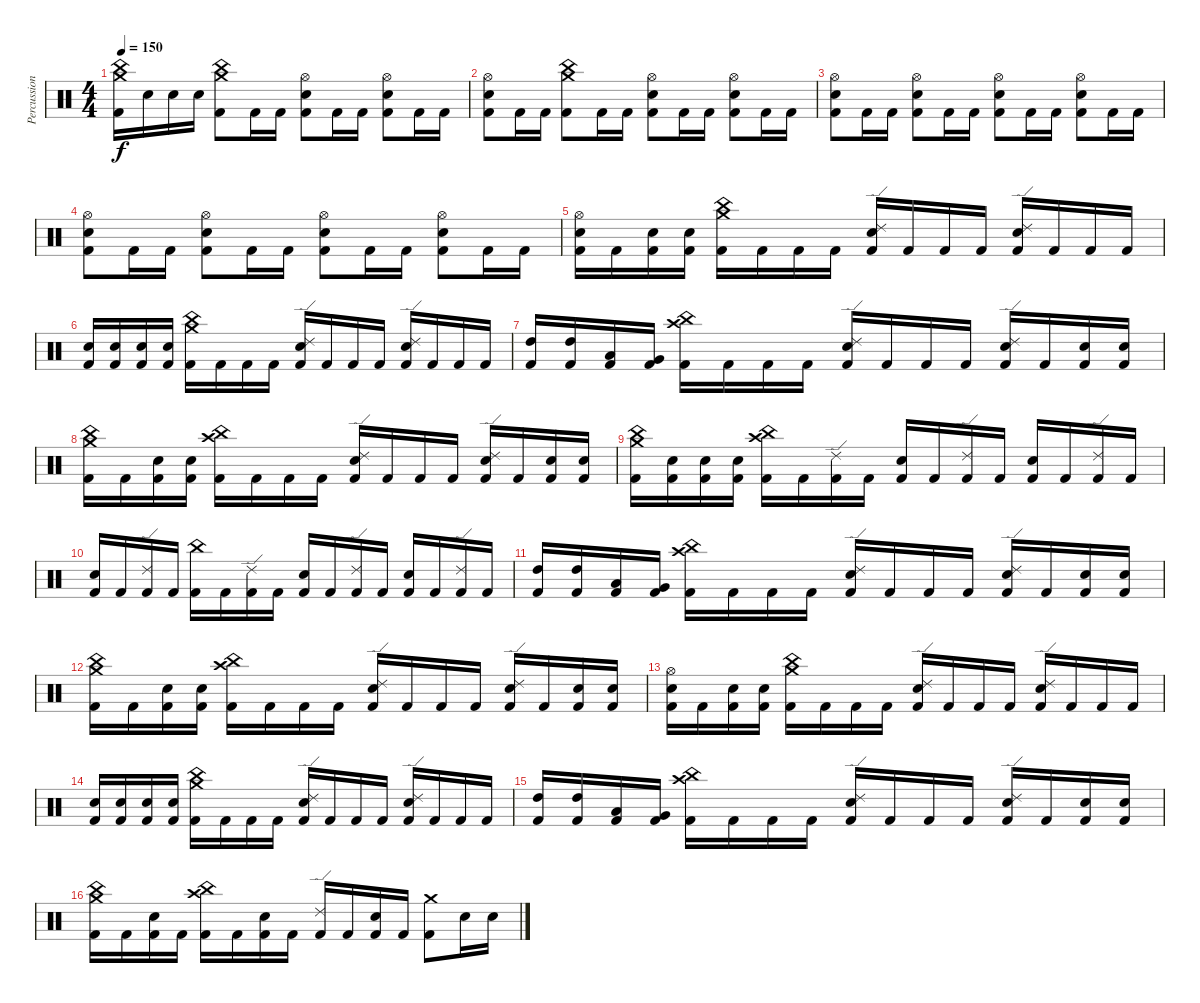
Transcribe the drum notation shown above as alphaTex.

\track ("Percussion" "Percussion") {instrument percussion}
\staff {score}
\articulation defaults
\ts (4 4)
\tempo 150
\clef neutral
\ks c
("China (hit)" "Crash medium (hit)" "Kick (hit) 2").16{dy f} "Electric Snare (hit)".16 "Electric Snare (hit)".16 "Electric Snare (hit)".16 ("China (hit)" "Crash medium (hit)" "Kick (hit) 2").8 "Kick (hit) 2".16 "Kick (hit) 2".16 ("Hi-Hat (open)" "Electric Snare (hit)" "Kick (hit) 2").8 "Kick (hit) 2".16 "Kick (hit) 2".16 ("Hi-Hat (open)" "Electric Snare (hit)" "Kick (hit) 2").8 "Kick (hit) 2".16 "Kick (hit) 2".16 |
("Hi-Hat (open)" "Electric Snare (hit)" "Kick (hit) 2").8 "Kick (hit) 2".16 "Kick (hit) 2".16 ("China (hit)" "Crash medium (hit)" "Kick (hit) 2").8 "Kick (hit) 2".16 "Kick (hit) 2".16 ("Hi-Hat (open)" "Electric Snare (hit)" "Kick (hit) 2").8 "Kick (hit) 2".16 "Kick (hit) 2".16 ("Hi-Hat (open)" "Electric Snare (hit)" "Kick (hit) 2").8 "Kick (hit) 2".16 "Kick (hit) 2".16 |
("Hi-Hat (open)" "Electric Snare (hit)" "Kick (hit) 2").8 "Kick (hit) 2".16 "Kick (hit) 2".16 ("Hi-Hat (open)" "Electric Snare (hit)" "Kick (hit) 2").8 "Kick (hit) 2".16 "Kick (hit) 2".16 ("Hi-Hat (open)" "Electric Snare (hit)" "Kick (hit) 2").8 "Kick (hit) 2".16 "Kick (hit) 2".16 ("Hi-Hat (open)" "Electric Snare (hit)" "Kick (hit) 2").8 "Kick (hit) 2".16 "Kick (hit) 2".16 |
("Hi-Hat (open)" "Electric Snare (hit)" "Kick (hit) 2").8 "Kick (hit) 2".16 "Kick (hit) 2".16 ("Hi-Hat (open)" "Electric Snare (hit)" "Kick (hit) 2").8 "Kick (hit) 2".16 "Kick (hit) 2".16 ("Hi-Hat (open)" "Electric Snare (hit)" "Kick (hit) 2").8 "Kick (hit) 2".16 "Kick (hit) 2".16 ("Hi-Hat (open)" "Electric Snare (hit)" "Kick (hit) 2").8 "Kick (hit) 2".16 "Kick (hit) 2".16 |
("Hi-Hat (open)" "Electric Snare (hit)" "Kick (hit) 2").16 "Kick (hit) 2".16 ("Electric Snare (hit)" "Kick (hit) 2").16 ("Electric Snare (hit)" "Kick (hit) 2").16 ("China (hit)" "Crash medium (hit)" "Kick (hit) 2").16 "Kick (hit) 2".16 "Kick (hit) 2".16 "Kick (hit) 2".16 ("Ride (edge) 2" "Electric Snare (hit)" "Kick (hit) 2").16 "Kick (hit) 2".16 "Kick (hit) 2".16 "Kick (hit) 2".16 ("Ride (edge) 2" "Electric Snare (hit)" "Kick (hit) 2").16 "Kick (hit) 2".16 "Kick (hit) 2".16 "Kick (hit) 2".16 |
("Electric Snare (hit)" "Kick (hit) 2").16 ("Electric Snare (hit)" "Kick (hit) 2").16 ("Electric Snare (hit)" "Kick (hit) 2").16 ("Electric Snare (hit)" "Kick (hit) 2").16 ("China (hit)" "Crash medium (hit)" "Kick (hit) 2").16 "Kick (hit) 2".16 "Kick (hit) 2".16 "Kick (hit) 2".16 ("Ride (edge) 2" "Electric Snare (hit)" "Kick (hit) 2").16 "Kick (hit) 2".16 "Kick (hit) 2".16 "Kick (hit) 2".16 ("Ride (edge) 2" "Electric Snare (hit)" "Kick (hit) 2").16 "Kick (hit) 2".16 "Kick (hit) 2".16 "Kick (hit) 2".16 |
("High Tom (hit)" "Kick (hit) 2").16 ("High Tom (hit)" "Kick (hit) 2").16 ("Low Tom (hit)" "Kick (hit) 2").16 ("Very Low Tom (hit)" "Kick (hit) 2").16 ("China (hit)" "Crash high (hit)" "Kick (hit) 2").16 "Kick (hit) 2".16 "Kick (hit) 2".16 "Kick (hit) 2".16 ("Ride (edge) 2" "Electric Snare (hit)" "Kick (hit) 2").16 "Kick (hit) 2".16 "Kick (hit) 2".16 "Kick (hit) 2".16 ("Ride (edge) 2" "Electric Snare (hit)" "Kick (hit) 2").16 "Kick (hit) 2".16 ("Electric Snare (hit)" "Kick (hit) 2").16 ("Electric Snare (hit)" "Kick (hit) 2").16 |
("China (hit)" "Crash medium (hit)" "Kick (hit) 2").16 "Kick (hit) 2".16 ("Electric Snare (hit)" "Kick (hit) 2").16 ("Electric Snare (hit)" "Kick (hit) 2").16 ("China (hit)" "Crash high (hit)" "Kick (hit) 2").16 "Kick (hit) 2".16 "Kick (hit) 2".16 "Kick (hit) 2".16 ("Ride (edge) 2" "Electric Snare (hit)" "Kick (hit) 2").16 "Kick (hit) 2".16 "Kick (hit) 2".16 "Kick (hit) 2".16 ("Ride (edge) 2" "Electric Snare (hit)" "Kick (hit) 2").16 "Kick (hit) 2".16 ("Electric Snare (hit)" "Kick (hit) 2").16 ("Electric Snare (hit)" "Kick (hit) 2").16 |
("China (hit)" "Crash medium (hit)" "Kick (hit) 2").16 ("Electric Snare (hit)" "Kick (hit) 2").16 ("Electric Snare (hit)" "Kick (hit) 2").16 ("Electric Snare (hit)" "Kick (hit) 2").16 ("China (hit)" "Crash high (hit)" "Kick (hit) 2").16 "Kick (hit) 2".16 ("Ride (edge) 2" "Kick (hit) 2").16 "Kick (hit) 2".16 ("Electric Snare (hit)" "Kick (hit) 2").16 "Kick (hit) 2".16 ("Ride (edge) 2" "Kick (hit) 2").16 "Kick (hit) 2".16 ("Electric Snare (hit)" "Kick (hit) 2").16 "Kick (hit) 2".16 ("Ride (edge) 2" "Kick (hit) 2").16 "Kick (hit) 2".16 |
("Electric Snare (hit)" "Kick (hit) 2").16 "Kick (hit) 2".16 ("Ride (edge) 2" "Kick (hit) 2").16 "Kick (hit) 2".16 ("China (hit)" "Kick (hit) 2").16 "Kick (hit) 2".16 ("Ride (edge) 2" "Kick (hit) 2").16 "Kick (hit) 2".16 ("Electric Snare (hit)" "Kick (hit) 2").16 "Kick (hit) 2".16 ("Ride (edge) 2" "Kick (hit) 2").16 "Kick (hit) 2".16 ("Electric Snare (hit)" "Kick (hit) 2").16 "Kick (hit) 2".16 ("Ride (edge) 2" "Kick (hit) 2").16 "Kick (hit) 2".16 |
("High Tom (hit)" "Kick (hit) 2").16 ("High Tom (hit)" "Kick (hit) 2").16 ("Low Tom (hit)" "Kick (hit) 2").16 ("Very Low Tom (hit)" "Kick (hit) 2").16 ("China (hit)" "Crash high (hit)" "Kick (hit) 2").16 "Kick (hit) 2".16 "Kick (hit) 2".16 "Kick (hit) 2".16 ("Ride (edge) 2" "Electric Snare (hit)" "Kick (hit) 2").16 "Kick (hit) 2".16 "Kick (hit) 2".16 "Kick (hit) 2".16 ("Ride (edge) 2" "Electric Snare (hit)" "Kick (hit) 2").16 "Kick (hit) 2".16 ("Electric Snare (hit)" "Kick (hit) 2").16 ("Electric Snare (hit)" "Kick (hit) 2").16 |
("China (hit)" "Crash medium (hit)" "Kick (hit) 2").16 "Kick (hit) 2".16 ("Electric Snare (hit)" "Kick (hit) 2").16 ("Electric Snare (hit)" "Kick (hit) 2").16 ("China (hit)" "Crash high (hit)" "Kick (hit) 2").16 "Kick (hit) 2".16 "Kick (hit) 2".16 "Kick (hit) 2".16 ("Ride (edge) 2" "Electric Snare (hit)" "Kick (hit) 2").16 "Kick (hit) 2".16 "Kick (hit) 2".16 "Kick (hit) 2".16 ("Ride (edge) 2" "Electric Snare (hit)" "Kick (hit) 2").16 "Kick (hit) 2".16 ("Electric Snare (hit)" "Kick (hit) 2").16 ("Electric Snare (hit)" "Kick (hit) 2").16 |
("Hi-Hat (open)" "Electric Snare (hit)" "Kick (hit) 2").16 "Kick (hit) 2".16 ("Electric Snare (hit)" "Kick (hit) 2").16 ("Electric Snare (hit)" "Kick (hit) 2").16 ("China (hit)" "Crash medium (hit)" "Kick (hit) 2").16 "Kick (hit) 2".16 "Kick (hit) 2".16 "Kick (hit) 2".16 ("Ride (edge) 2" "Electric Snare (hit)" "Kick (hit) 2").16 "Kick (hit) 2".16 "Kick (hit) 2".16 "Kick (hit) 2".16 ("Ride (edge) 2" "Electric Snare (hit)" "Kick (hit) 2").16 "Kick (hit) 2".16 "Kick (hit) 2".16 "Kick (hit) 2".16 |
("Electric Snare (hit)" "Kick (hit) 2").16 ("Electric Snare (hit)" "Kick (hit) 2").16 ("Electric Snare (hit)" "Kick (hit) 2").16 ("Electric Snare (hit)" "Kick (hit) 2").16 ("China (hit)" "Crash medium (hit)" "Kick (hit) 2").16 "Kick (hit) 2".16 "Kick (hit) 2".16 "Kick (hit) 2".16 ("Ride (edge) 2" "Electric Snare (hit)" "Kick (hit) 2").16 "Kick (hit) 2".16 "Kick (hit) 2".16 "Kick (hit) 2".16 ("Ride (edge) 2" "Electric Snare (hit)" "Kick (hit) 2").16 "Kick (hit) 2".16 "Kick (hit) 2".16 "Kick (hit) 2".16 |
("High Tom (hit)" "Kick (hit) 2").16 ("High Tom (hit)" "Kick (hit) 2").16 ("Low Tom (hit)" "Kick (hit) 2").16 ("Very Low Tom (hit)" "Kick (hit) 2").16 ("China (hit)" "Crash high (hit)" "Kick (hit) 2").16 "Kick (hit) 2".16 "Kick (hit) 2".16 "Kick (hit) 2".16 ("Ride (edge) 2" "Electric Snare (hit)" "Kick (hit) 2").16 "Kick (hit) 2".16 "Kick (hit) 2".16 "Kick (hit) 2".16 ("Ride (edge) 2" "Electric Snare (hit)" "Kick (hit) 2").16 "Kick (hit) 2".16 ("Electric Snare (hit)" "Kick (hit) 2").16 ("Electric Snare (hit)" "Kick (hit) 2").16 |
("China (hit)" "Crash medium (hit)" "Kick (hit) 2").16 "Kick (hit) 2".16 ("Electric Snare (hit)" "Kick (hit) 2").16 "Kick (hit) 2".16 ("China (hit)" "Crash high (hit)" "Kick (hit) 2").16 "Kick (hit) 2".16 ("Electric Snare (hit)" "Kick (hit) 2").16 "Kick (hit) 2".16 ("Ride (edge) 2" "Kick (hit) 2").16 "Kick (hit) 2".16 ("Electric Snare (hit)" "Kick (hit) 2").16 "Kick (hit) 2".16 ("Crash medium (hit)" "Kick (hit) 2").8 "Electric Snare (hit)".16 "Electric Snare (hit)".16
